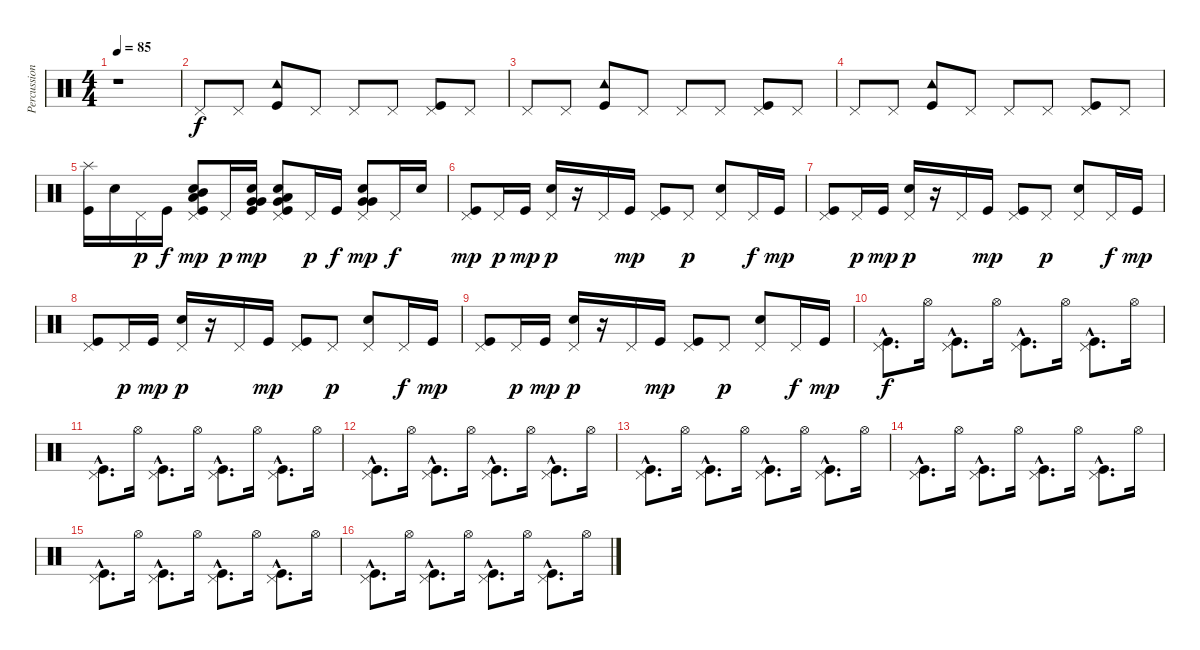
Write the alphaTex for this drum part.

\track ("Percussions" "Percussion") {instrument percussion}
\staff {score}
\articulation defaults
\ts (4 4)
\tempo 85
\clef neutral
\ks c
r.1{dy f} |
"Pedal Hi-Hat (hit)".8 "Pedal Hi-Hat (hit)".8 ("Tambourine (hit)" "Kick (hit)").8 "Pedal Hi-Hat (hit)".8 "Pedal Hi-Hat (hit)".8 "Pedal Hi-Hat (hit)".8 ("Pedal Hi-Hat (hit)" "Kick (hit)").8 "Pedal Hi-Hat (hit)".8 |
"Pedal Hi-Hat (hit)".8 "Pedal Hi-Hat (hit)".8 ("Tambourine (hit)" "Kick (hit)").8 "Pedal Hi-Hat (hit)".8 "Pedal Hi-Hat (hit)".8 "Pedal Hi-Hat (hit)".8 ("Pedal Hi-Hat (hit)" "Kick (hit)").8 "Pedal Hi-Hat (hit)".8 |
"Pedal Hi-Hat (hit)".8 "Pedal Hi-Hat (hit)".8 ("Tambourine (hit)" "Kick (hit)").8 "Pedal Hi-Hat (hit)".8 "Pedal Hi-Hat (hit)".8 "Pedal Hi-Hat (hit)".8 ("Pedal Hi-Hat (hit)" "Kick (hit)").8 "Pedal Hi-Hat (hit)".8 |
("Splash (hit)" "Kick (hit)").16 "Snare (hit) 2".16 "Pedal Hi-Hat (hit)".16{dy p} "Kick (hit)".16{dy f} ("Pedal Hi-Hat (hit)" "Snare (hit) 2" "Mid Tom (hit)" "Low Tom (hit)" "Kick (hit)").8{dy mp} "Pedal Hi-Hat (hit)".16{dy p} ("Snare (hit) 2" "Very Low Tom (hit)" "Very Low Tom (hit)" "Kick (hit)").16{dy mp} ("Pedal Hi-Hat (hit)" "Snare (hit) 2" "Very Low Tom (hit)" "Low Floor Tom (hit)" "Kick (hit)").8 "Pedal Hi-Hat (hit)".16{dy p} "Kick (hit)".16{dy f} ("Pedal Hi-Hat (hit)" "Snare (hit) 2" "Very Low Tom (hit)" "Very Low Tom (hit)").8{dy mp} "Pedal Hi-Hat (hit)".16{dy f} "Snare (hit) 2".16 |
("Pedal Hi-Hat (hit)" "Kick (hit)").8{dy mp} "Pedal Hi-Hat (hit)".16{dy p} "Kick (hit)".16{dy mp} ("Pedal Hi-Hat (hit)" "Snare (hit) 2").16{dy p} r.16 "Pedal Hi-Hat (hit)".16 "Kick (hit)".16{dy mp} ("Pedal Hi-Hat (hit)" "Kick (hit)").8 "Pedal Hi-Hat (hit)".8{dy p} ("Pedal Hi-Hat (hit)" "Snare (hit) 2").8 "Pedal Hi-Hat (hit)".16{dy f} "Kick (hit)".16{dy mp} |
("Pedal Hi-Hat (hit)" "Kick (hit)").8 "Pedal Hi-Hat (hit)".16{dy p} "Kick (hit)".16{dy mp} ("Pedal Hi-Hat (hit)" "Snare (hit) 2").16{dy p} r.16 "Pedal Hi-Hat (hit)".16 "Kick (hit)".16{dy mp} ("Pedal Hi-Hat (hit)" "Kick (hit)").8 "Pedal Hi-Hat (hit)".8{dy p} ("Pedal Hi-Hat (hit)" "Snare (hit) 2").8 "Pedal Hi-Hat (hit)".16{dy f} "Kick (hit)".16{dy mp} |
("Pedal Hi-Hat (hit)" "Kick (hit)").8 "Pedal Hi-Hat (hit)".16{dy p} "Kick (hit)".16{dy mp} ("Pedal Hi-Hat (hit)" "Snare (hit) 2").16{dy p} r.16 "Pedal Hi-Hat (hit)".16 "Kick (hit)".16{dy mp} ("Pedal Hi-Hat (hit)" "Kick (hit)").8 "Pedal Hi-Hat (hit)".8{dy p} ("Pedal Hi-Hat (hit)" "Snare (hit) 2").8 "Pedal Hi-Hat (hit)".16{dy f} "Kick (hit)".16{dy mp} |
("Pedal Hi-Hat (hit)" "Kick (hit)").8 "Pedal Hi-Hat (hit)".16{dy p} "Kick (hit)".16{dy mp} ("Pedal Hi-Hat (hit)" "Snare (hit) 2").16{dy p} r.16 "Pedal Hi-Hat (hit)".16 "Kick (hit)".16{dy mp} ("Pedal Hi-Hat (hit)" "Kick (hit)").8 "Pedal Hi-Hat (hit)".8{dy p} ("Pedal Hi-Hat (hit)" "Snare (hit) 2").8 "Pedal Hi-Hat (hit)".16{dy f} "Kick (hit)".16{dy mp} |
("Pedal Hi-Hat (hit)"{hac} "Kick (hit)"{hac}).8{d dy f} "Hi-Hat (open)".16 ("Pedal Hi-Hat (hit)"{hac} "Kick (hit)"{hac}).8{d} "Hi-Hat (open)".16 ("Pedal Hi-Hat (hit)"{hac} "Kick (hit)"{hac}).8{d} "Hi-Hat (open)".16 ("Pedal Hi-Hat (hit)"{hac} "Kick (hit)"{hac}).8{d} "Hi-Hat (open)".16 |
("Pedal Hi-Hat (hit)"{hac} "Kick (hit)"{hac}).8{d} "Hi-Hat (open)".16 ("Pedal Hi-Hat (hit)"{hac} "Kick (hit)"{hac}).8{d} "Hi-Hat (open)".16 ("Pedal Hi-Hat (hit)"{hac} "Kick (hit)"{hac}).8{d} "Hi-Hat (open)".16 ("Pedal Hi-Hat (hit)"{hac} "Kick (hit)"{hac}).8{d} "Hi-Hat (open)".16 |
("Pedal Hi-Hat (hit)"{hac} "Kick (hit)"{hac}).8{d} "Hi-Hat (open)".16 ("Pedal Hi-Hat (hit)"{hac} "Kick (hit)"{hac}).8{d} "Hi-Hat (open)".16 ("Pedal Hi-Hat (hit)"{hac} "Kick (hit)"{hac}).8{d} "Hi-Hat (open)".16 ("Pedal Hi-Hat (hit)"{hac} "Kick (hit)"{hac}).8{d} "Hi-Hat (open)".16 |
("Pedal Hi-Hat (hit)"{hac} "Kick (hit)"{hac}).8{d} "Hi-Hat (open)".16 ("Pedal Hi-Hat (hit)"{hac} "Kick (hit)"{hac}).8{d} "Hi-Hat (open)".16 ("Pedal Hi-Hat (hit)"{hac} "Kick (hit)"{hac}).8{d} "Hi-Hat (open)".16 ("Pedal Hi-Hat (hit)"{hac} "Kick (hit)"{hac}).8{d} "Hi-Hat (open)".16 |
("Pedal Hi-Hat (hit)"{hac} "Kick (hit)"{hac}).8{d} "Hi-Hat (open)".16 ("Pedal Hi-Hat (hit)"{hac} "Kick (hit)"{hac}).8{d} "Hi-Hat (open)".16 ("Pedal Hi-Hat (hit)"{hac} "Kick (hit)"{hac}).8{d} "Hi-Hat (open)".16 ("Pedal Hi-Hat (hit)"{hac} "Kick (hit)"{hac}).8{d} "Hi-Hat (open)".16 |
("Pedal Hi-Hat (hit)"{hac} "Kick (hit)"{hac}).8{d} "Hi-Hat (open)".16 ("Pedal Hi-Hat (hit)"{hac} "Kick (hit)"{hac}).8{d} "Hi-Hat (open)".16 ("Pedal Hi-Hat (hit)"{hac} "Kick (hit)"{hac}).8{d} "Hi-Hat (open)".16 ("Pedal Hi-Hat (hit)"{hac} "Kick (hit)"{hac}).8{d} "Hi-Hat (open)".16 |
("Pedal Hi-Hat (hit)"{hac} "Kick (hit)"{hac}).8{d} "Hi-Hat (open)".16 ("Pedal Hi-Hat (hit)"{hac} "Kick (hit)"{hac}).8{d} "Hi-Hat (open)".16 ("Pedal Hi-Hat (hit)"{hac} "Kick (hit)"{hac}).8{d} "Hi-Hat (open)".16 ("Pedal Hi-Hat (hit)"{hac} "Kick (hit)"{hac}).8{d} "Hi-Hat (open)".16
